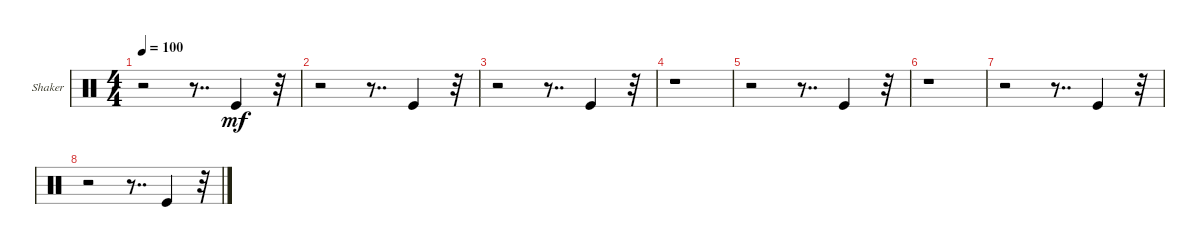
\defaultSystemsLayout 4
\bracketExtendMode groupsimilarinstruments
\firstSystemTrackNameOrientation horizontal
\otherSystemsTrackNameOrientation horizontal
\track ("Shaker" "Shaker") {instrument percussion}
\staff {score}
\articulation defaults
\ts (4 4)
\tempo 100
\clef neutral
\scale
0.333333
\ks c
r.2{dy mf} r.8{dd} "Kick (hit)".4 r.32 |
\scale
0.333333 r.2 r.8{dd} "Kick (hit)".4 r.32 |
\scale
0.333333 r.2 r.8{dd} "Kick (hit)".4 r.32 |
\scale
0.333333 r.1 |
\scale
0.333333 r.2 r.8{dd} "Kick (hit)".4 r.32 |
r.1 |
r.2 r.8{dd} "Kick (hit)".4 r.32 |
r.2 r.8{dd} "Kick (hit)".4 r.32
